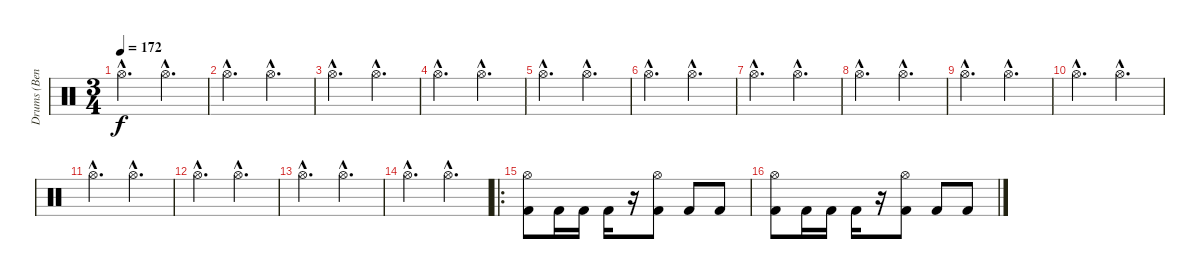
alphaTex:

\track ("Drums (Ben)" "Drums (Ben") {instrument percussion}
\staff {score}
\articulation defaults
\ts (3 4)
\tempo 172
\clef neutral
\ks c "Hi-Hat (open)"{hac}.4{d dy f} "Hi-Hat (open)"{hac}.4{d}
|
"Hi-Hat (open)"{hac}.4{d} "Hi-Hat (open)"{hac}.4{d} |
"Hi-Hat (open)"{hac}.4{d} "Hi-Hat (open)"{hac}.4{d} |
"Hi-Hat (open)"{hac}.4{d} "Hi-Hat (open)"{hac}.4{d} |
"Hi-Hat (open)"{hac}.4{d} "Hi-Hat (open)"{hac}.4{d} |
"Hi-Hat (open)"{hac}.4{d} "Hi-Hat (open)"{hac}.4{d} |
"Hi-Hat (open)"{hac}.4{d} "Hi-Hat (open)"{hac}.4{d} |
"Hi-Hat (open)"{hac}.4{d} "Hi-Hat (open)"{hac}.4{d} |
"Hi-Hat (open)"{hac}.4{d} "Hi-Hat (open)"{hac}.4{d} |
"Hi-Hat (open)"{hac}.4{d} "Hi-Hat (open)"{hac}.4{d} |
"Hi-Hat (open)"{hac}.4{d} "Hi-Hat (open)"{hac}.4{d} |
"Hi-Hat (open)"{hac}.4{d} "Hi-Hat (open)"{hac}.4{d} |
"Hi-Hat (open)"{hac}.4{d} "Hi-Hat (open)"{hac}.4{d} |
"Hi-Hat (open)"{hac}.4{d} "Hi-Hat (open)"{hac}.4{d} |
\ro
("Hi-Hat (open)" "Kick (hit) 2").8 "Kick (hit) 2".16 "Kick (hit) 2".16 "Kick (hit) 2".16 r.16 ("Hi-Hat (open)" "Kick (hit) 2").8 "Kick (hit) 2".8 "Kick (hit) 2".8 |
("Hi-Hat (open)" "Kick (hit) 2").8 "Kick (hit) 2".16 "Kick (hit) 2".16 "Kick (hit) 2".16 r.16 ("Hi-Hat (open)" "Kick (hit) 2").8 "Kick (hit) 2".8 "Kick (hit) 2".8
